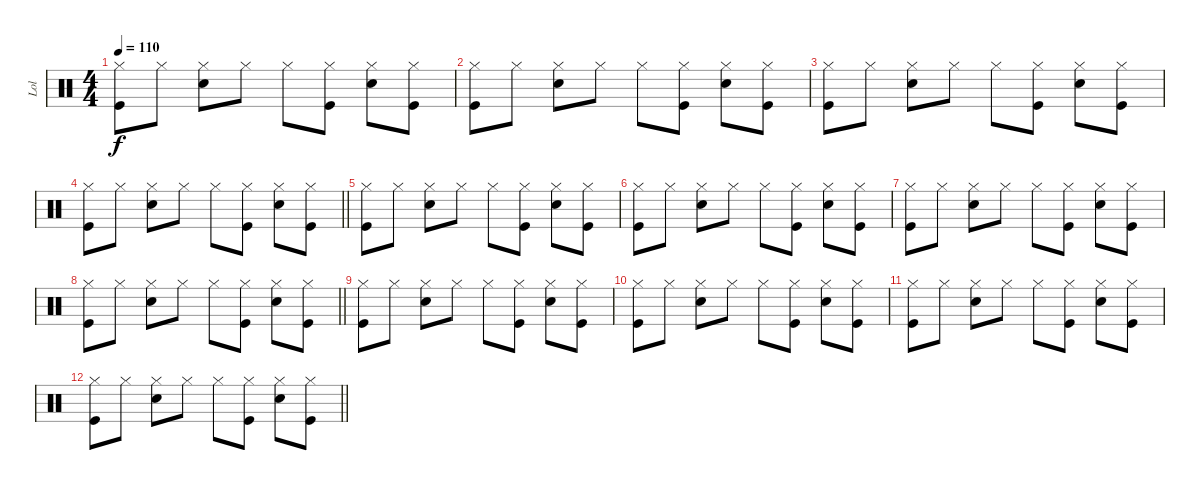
\track ("Lol" "Lol") {instrument percussion}
\staff {score}
\articulation defaults
\ts (4 4)
\tempo 110
\clef neutral
\ks c
("Hi-Hat (closed)" "Kick (hit)").8{dy f} "Hi-Hat (closed)".8 ("Hi-Hat (closed)" "Electric Snare (hit)").8 "Hi-Hat (closed)".8 "Hi-Hat (closed)".8 ("Hi-Hat (closed)" "Kick (hit)").8 ("Hi-Hat (closed)" "Electric Snare (hit)").8 ("Hi-Hat (closed)" "Kick (hit)").8 |
("Hi-Hat (closed)" "Kick (hit)").8 "Hi-Hat (closed)".8 ("Hi-Hat (closed)" "Electric Snare (hit)").8 "Hi-Hat (closed)".8 "Hi-Hat (closed)".8 ("Hi-Hat (closed)" "Kick (hit)").8 ("Hi-Hat (closed)" "Electric Snare (hit)").8 ("Hi-Hat (closed)" "Kick (hit)").8 |
("Hi-Hat (closed)" "Kick (hit)").8 "Hi-Hat (closed)".8 ("Hi-Hat (closed)" "Electric Snare (hit)").8 "Hi-Hat (closed)".8 "Hi-Hat (closed)".8 ("Hi-Hat (closed)" "Kick (hit)").8 ("Hi-Hat (closed)" "Electric Snare (hit)").8 ("Hi-Hat (closed)" "Kick (hit)").8 |
\barLineRight lightlight
("Hi-Hat (closed)" "Kick (hit)").8 "Hi-Hat (closed)".8 ("Hi-Hat (closed)" "Electric Snare (hit)").8 "Hi-Hat (closed)".8 "Hi-Hat (closed)".8 ("Hi-Hat (closed)" "Kick (hit)").8 ("Hi-Hat (closed)" "Electric Snare (hit)").8 ("Hi-Hat (closed)" "Kick (hit)").8 |
("Hi-Hat (closed)" "Kick (hit)").8 "Hi-Hat (closed)".8 ("Hi-Hat (closed)" "Electric Snare (hit)").8 "Hi-Hat (closed)".8 "Hi-Hat (closed)".8 ("Hi-Hat (closed)" "Kick (hit)").8 ("Hi-Hat (closed)" "Electric Snare (hit)").8 ("Hi-Hat (closed)" "Kick (hit)").8 |
("Hi-Hat (closed)" "Kick (hit)").8 "Hi-Hat (closed)".8 ("Hi-Hat (closed)" "Electric Snare (hit)").8 "Hi-Hat (closed)".8 "Hi-Hat (closed)".8 ("Hi-Hat (closed)" "Kick (hit)").8 ("Hi-Hat (closed)" "Electric Snare (hit)").8 ("Hi-Hat (closed)" "Kick (hit)").8 |
("Hi-Hat (closed)" "Kick (hit)").8 "Hi-Hat (closed)".8 ("Hi-Hat (closed)" "Electric Snare (hit)").8 "Hi-Hat (closed)".8 "Hi-Hat (closed)".8 ("Hi-Hat (closed)" "Kick (hit)").8 ("Hi-Hat (closed)" "Electric Snare (hit)").8 ("Hi-Hat (closed)" "Kick (hit)").8 |
\barLineRight lightlight
("Hi-Hat (closed)" "Kick (hit)").8 "Hi-Hat (closed)".8 ("Hi-Hat (closed)" "Electric Snare (hit)").8 "Hi-Hat (closed)".8 "Hi-Hat (closed)".8 ("Hi-Hat (closed)" "Kick (hit)").8 ("Hi-Hat (closed)" "Electric Snare (hit)").8 ("Hi-Hat (closed)" "Kick (hit)").8 |
("Hi-Hat (closed)" "Kick (hit)").8 "Hi-Hat (closed)".8 ("Hi-Hat (closed)" "Electric Snare (hit)").8 "Hi-Hat (closed)".8 "Hi-Hat (closed)".8 ("Hi-Hat (closed)" "Kick (hit)").8 ("Hi-Hat (closed)" "Electric Snare (hit)").8 ("Hi-Hat (closed)" "Kick (hit)").8 |
("Hi-Hat (closed)" "Kick (hit)").8 "Hi-Hat (closed)".8 ("Hi-Hat (closed)" "Electric Snare (hit)").8 "Hi-Hat (closed)".8 "Hi-Hat (closed)".8 ("Hi-Hat (closed)" "Kick (hit)").8 ("Hi-Hat (closed)" "Electric Snare (hit)").8 ("Hi-Hat (closed)" "Kick (hit)").8 |
("Hi-Hat (closed)" "Kick (hit)").8 "Hi-Hat (closed)".8 ("Hi-Hat (closed)" "Electric Snare (hit)").8 "Hi-Hat (closed)".8 "Hi-Hat (closed)".8 ("Hi-Hat (closed)" "Kick (hit)").8 ("Hi-Hat (closed)" "Electric Snare (hit)").8 ("Hi-Hat (closed)" "Kick (hit)").8 |
\barLineRight lightlight
("Hi-Hat (closed)" "Kick (hit)").8 "Hi-Hat (closed)".8 ("Hi-Hat (closed)" "Electric Snare (hit)").8 "Hi-Hat (closed)".8 "Hi-Hat (closed)".8 ("Hi-Hat (closed)" "Kick (hit)").8 ("Hi-Hat (closed)" "Electric Snare (hit)").8 ("Hi-Hat (closed)" "Kick (hit)").8
